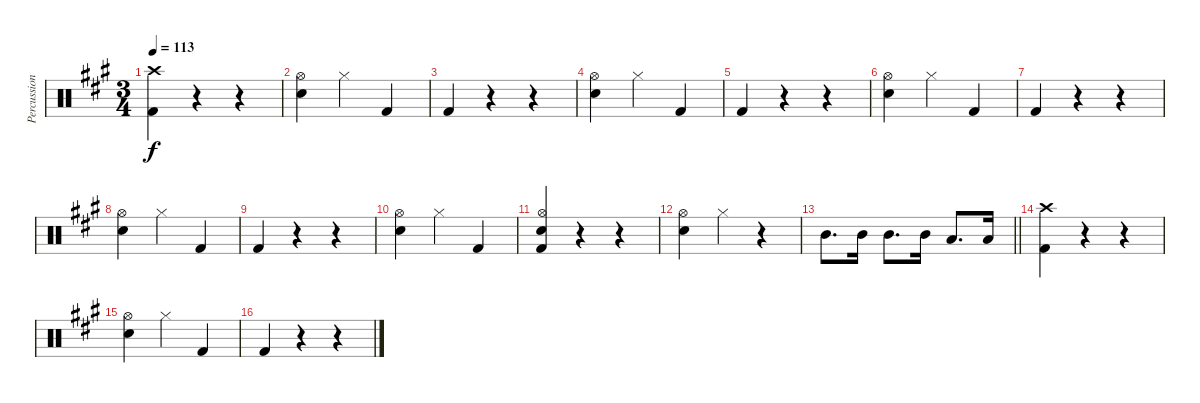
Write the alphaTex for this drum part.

\track ("Percussion" "Percussion") {instrument percussion}
\staff {score}
\articulation defaults
\ts (3 4)
\tempo 113
\clef neutral
\ks a
("Crash high (hit)" "Kick (hit) 2").4{dy f} r.4 r.4 |
("Hi-Hat (open)" "Snare (hit) 2").4 "Hi-Hat (closed)".4 "Kick (hit) 2".4 |
"Kick (hit) 2".4 r.4 r.4 |
("Hi-Hat (open)" "Snare (hit) 2").4 "Hi-Hat (closed)".4 "Kick (hit) 2".4 |
"Kick (hit) 2".4 r.4 r.4 |
("Hi-Hat (open)" "Snare (hit) 2").4 "Hi-Hat (closed)".4 "Kick (hit) 2".4 |
"Kick (hit) 2".4 r.4 r.4 |
("Hi-Hat (open)" "Snare (hit) 2").4 "Hi-Hat (closed)".4 "Kick (hit) 2".4 |
"Kick (hit) 2".4 r.4 r.4 |
("Hi-Hat (open)" "Snare (hit) 2").4 "Hi-Hat (closed)".4 "Kick (hit) 2".4 |
("Hi-Hat (open)" "Snare (hit) 2" "Kick (hit) 2").4 r.4 r.4 |
("Hi-Hat (open)" "Snare (hit) 2").4 "Hi-Hat (closed)".4 r.4 |
\barLineRight lightlight "Mid Tom (hit)".8{d} "Mid Tom (hit)".16 "Mid Tom (hit)".8{d} "Mid Tom (hit)".16 "Low Floor Tom (hit)".8{d} "Low Floor Tom (hit)".16
|
("Crash high (hit)" "Kick (hit) 2").4 r.4 r.4 |
("Hi-Hat (open)" "Snare (hit) 2").4 "Hi-Hat (closed)".4 "Kick (hit) 2".4 |
"Kick (hit) 2".4 r.4 r.4
